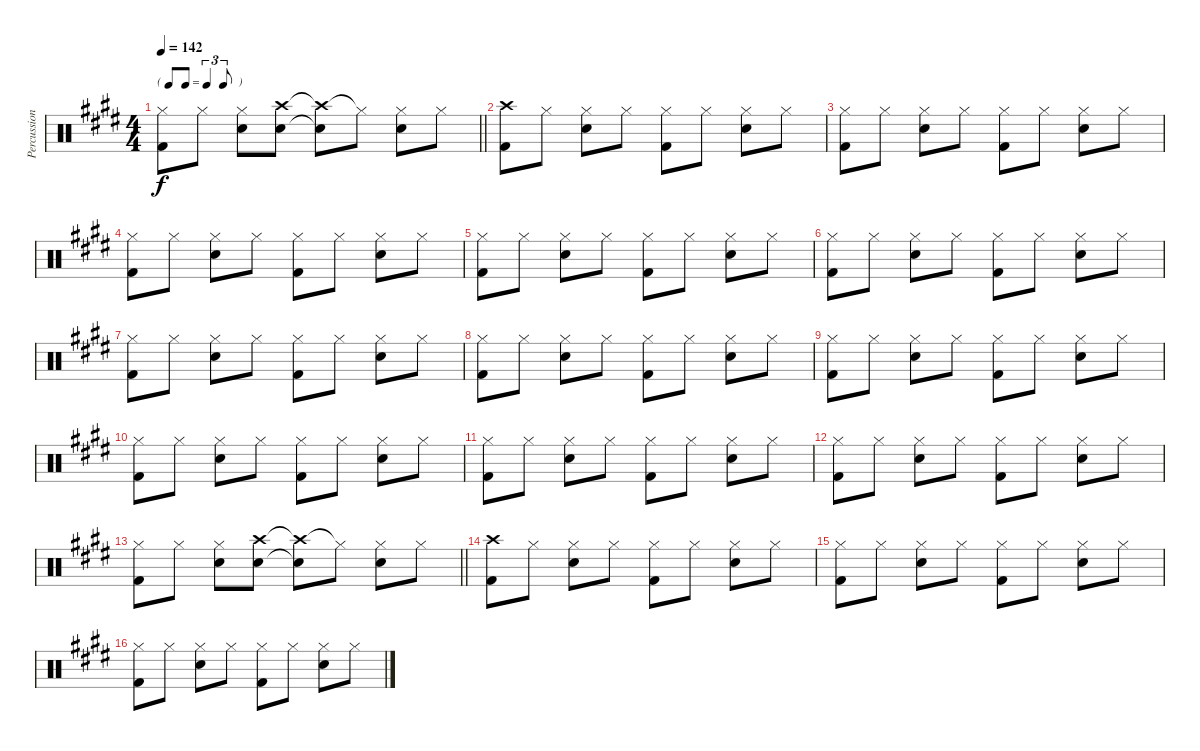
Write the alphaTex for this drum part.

\track ("Percussion" "Percussion") {instrument percussion}
\staff {score}
\articulation defaults
\ts (4 4)
\tf triplet8th
\tempo 142
\clef neutral
\barLineRight lightlight
\ks e
("Hi-Hat (closed)" "Kick (hit) 2").8{dy f} "Hi-Hat (closed)".8 ("Hi-Hat (closed)" "Snare (hit) 2").8 ("Crash high (hit)" "Snare (hit) 2").8 ("Crash high (hit)"{t} "Snare (hit) 2"{t}).8 "Hi-Hat (closed)"{t}.8 ("Hi-Hat (closed)" "Snare (hit) 2").8 "Hi-Hat (closed)".8 |
("Crash high (hit)" "Kick (hit) 2").8 "Hi-Hat (closed)".8 ("Hi-Hat (closed)" "Snare (hit) 2").8 "Hi-Hat (closed)".8 ("Hi-Hat (closed)" "Kick (hit) 2").8 "Hi-Hat (closed)".8 ("Hi-Hat (closed)" "Snare (hit) 2").8 "Hi-Hat (closed)".8 |
("Hi-Hat (closed)" "Kick (hit) 2").8 "Hi-Hat (closed)".8 ("Hi-Hat (closed)" "Snare (hit) 2").8 "Hi-Hat (closed)".8 ("Hi-Hat (closed)" "Kick (hit) 2").8 "Hi-Hat (closed)".8 ("Hi-Hat (closed)" "Snare (hit) 2").8 "Hi-Hat (closed)".8 |
("Hi-Hat (closed)" "Kick (hit) 2").8 "Hi-Hat (closed)".8 ("Hi-Hat (closed)" "Snare (hit) 2").8 "Hi-Hat (closed)".8 ("Hi-Hat (closed)" "Kick (hit) 2").8 "Hi-Hat (closed)".8 ("Hi-Hat (closed)" "Snare (hit) 2").8 "Hi-Hat (closed)".8 |
("Hi-Hat (closed)" "Kick (hit) 2").8 "Hi-Hat (closed)".8 ("Hi-Hat (closed)" "Snare (hit) 2").8 "Hi-Hat (closed)".8 ("Hi-Hat (closed)" "Kick (hit) 2").8 "Hi-Hat (closed)".8 ("Hi-Hat (closed)" "Snare (hit) 2").8 "Hi-Hat (closed)".8 |
("Hi-Hat (closed)" "Kick (hit) 2").8 "Hi-Hat (closed)".8 ("Hi-Hat (closed)" "Snare (hit) 2").8 "Hi-Hat (closed)".8 ("Hi-Hat (closed)" "Kick (hit) 2").8 "Hi-Hat (closed)".8 ("Hi-Hat (closed)" "Snare (hit) 2").8 "Hi-Hat (closed)".8 |
("Hi-Hat (closed)" "Kick (hit) 2").8 "Hi-Hat (closed)".8 ("Hi-Hat (closed)" "Snare (hit) 2").8 "Hi-Hat (closed)".8 ("Hi-Hat (closed)" "Kick (hit) 2").8 "Hi-Hat (closed)".8 ("Hi-Hat (closed)" "Snare (hit) 2").8 "Hi-Hat (closed)".8 |
("Hi-Hat (closed)" "Kick (hit) 2").8 "Hi-Hat (closed)".8 ("Hi-Hat (closed)" "Snare (hit) 2").8 "Hi-Hat (closed)".8 ("Hi-Hat (closed)" "Kick (hit) 2").8 "Hi-Hat (closed)".8 ("Hi-Hat (closed)" "Snare (hit) 2").8 "Hi-Hat (closed)".8 |
("Hi-Hat (closed)" "Kick (hit) 2").8 "Hi-Hat (closed)".8 ("Hi-Hat (closed)" "Snare (hit) 2").8 "Hi-Hat (closed)".8 ("Hi-Hat (closed)" "Kick (hit) 2").8 "Hi-Hat (closed)".8 ("Hi-Hat (closed)" "Snare (hit) 2").8 "Hi-Hat (closed)".8 |
("Hi-Hat (closed)" "Kick (hit) 2").8 "Hi-Hat (closed)".8 ("Hi-Hat (closed)" "Snare (hit) 2").8 "Hi-Hat (closed)".8 ("Hi-Hat (closed)" "Kick (hit) 2").8 "Hi-Hat (closed)".8 ("Hi-Hat (closed)" "Snare (hit) 2").8 "Hi-Hat (closed)".8 |
("Hi-Hat (closed)" "Kick (hit) 2").8 "Hi-Hat (closed)".8 ("Hi-Hat (closed)" "Snare (hit) 2").8 "Hi-Hat (closed)".8 ("Hi-Hat (closed)" "Kick (hit) 2").8 "Hi-Hat (closed)".8 ("Hi-Hat (closed)" "Snare (hit) 2").8 "Hi-Hat (closed)".8 |
("Hi-Hat (closed)" "Kick (hit) 2").8 "Hi-Hat (closed)".8 ("Hi-Hat (closed)" "Snare (hit) 2").8 "Hi-Hat (closed)".8 ("Hi-Hat (closed)" "Kick (hit) 2").8 "Hi-Hat (closed)".8 ("Hi-Hat (closed)" "Snare (hit) 2").8 "Hi-Hat (closed)".8 |
\barLineRight lightlight
("Hi-Hat (closed)" "Kick (hit) 2").8 "Hi-Hat (closed)".8 ("Hi-Hat (closed)" "Snare (hit) 2").8 ("Crash high (hit)" "Snare (hit) 2").8 ("Crash high (hit)"{t} "Snare (hit) 2"{t}).8 "Hi-Hat (closed)"{t}.8 ("Hi-Hat (closed)" "Snare (hit) 2").8 "Hi-Hat (closed)".8 |
("Crash high (hit)" "Kick (hit) 2").8 "Hi-Hat (closed)".8 ("Hi-Hat (closed)" "Snare (hit) 2").8 "Hi-Hat (closed)".8 ("Hi-Hat (closed)" "Kick (hit) 2").8 "Hi-Hat (closed)".8 ("Hi-Hat (closed)" "Snare (hit) 2").8 "Hi-Hat (closed)".8 |
("Hi-Hat (closed)" "Kick (hit) 2").8 "Hi-Hat (closed)".8 ("Hi-Hat (closed)" "Snare (hit) 2").8 "Hi-Hat (closed)".8 ("Hi-Hat (closed)" "Kick (hit) 2").8 "Hi-Hat (closed)".8 ("Hi-Hat (closed)" "Snare (hit) 2").8 "Hi-Hat (closed)".8 |
("Hi-Hat (closed)" "Kick (hit) 2").8 "Hi-Hat (closed)".8 ("Hi-Hat (closed)" "Snare (hit) 2").8 "Hi-Hat (closed)".8 ("Hi-Hat (closed)" "Kick (hit) 2").8 "Hi-Hat (closed)".8 ("Hi-Hat (closed)" "Snare (hit) 2").8 "Hi-Hat (closed)".8
